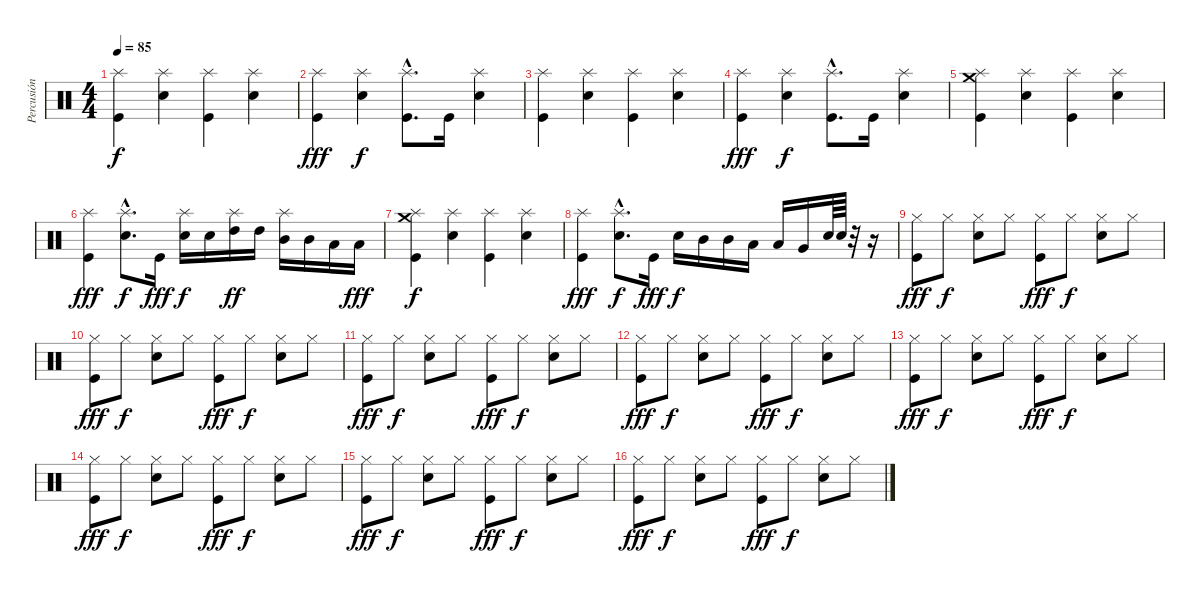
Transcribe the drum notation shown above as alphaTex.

\track ("Percusión" "Percusión") {instrument percussion}
\staff {score}
\articulation defaults
\ts (4 4)
\tempo 85
\clef neutral
\ks c
("Splash (hit)" "Kick (hit)").4{dy f} ("Splash (hit)" "Electric Snare (hit)").4 ("Splash (hit)" "Kick (hit)").4 ("Splash (hit)" "Electric Snare (hit)").4 |
("Splash (hit)" "Kick (hit)").4{dy fff} ("Splash (hit)" "Electric Snare (hit)").4{dy f} ("Splash (hit)"{hac} "Kick (hit)"{hac}).8{d} "Kick (hit)".16 ("Splash (hit)" "Electric Snare (hit)").4 |
("Splash (hit)" "Kick (hit)").4 ("Splash (hit)" "Electric Snare (hit)").4 ("Splash (hit)" "Kick (hit)").4 ("Splash (hit)" "Electric Snare (hit)").4 |
("Splash (hit)" "Kick (hit)").4{dy fff} ("Splash (hit)" "Electric Snare (hit)").4{dy f} ("Splash (hit)"{hac} "Kick (hit)"{hac}).8{d} "Kick (hit)".16 ("Splash (hit)" "Electric Snare (hit)").4 |
("Crash medium (hit)" "Kick (hit)" "Splash (hit)").4 ("Splash (hit)" "Electric Snare (hit)").4 ("Splash (hit)" "Kick (hit)").4 ("Splash (hit)" "Electric Snare (hit)").4 |
("Splash (hit)" "Kick (hit)").4{dy fff} ("Splash (hit)"{hac} "Electric Snare (hit)"{hac}).8{d dy f} "Kick (hit)".16{dy fff} ("Splash (hit)" "Snare (hit) 2").16{dy f} "Snare (hit) 2".16 ("Splash (hit)" "High Tom (hit)").16{dy ff} "High Tom (hit)".16 ("Splash (hit)" "Mid Tom (hit)").16 "Mid Tom (hit)".16 "Low Tom (hit)".16 "Low Tom (hit)".16{dy fff} |
("Splash (hit)" "Crash medium (hit)" "Kick (hit)").4{dy f} ("Splash (hit)" "Electric Snare (hit)").4 ("Splash (hit)" "Kick (hit)").4 ("Splash (hit)" "Electric Snare (hit)").4 |
("Splash (hit)" "Kick (hit)").4{dy fff} ("Splash (hit)"{hac} "Electric Snare (hit)"{hac}).8{d dy f} "Kick (hit)".16{dy fff} "Electric Snare (hit)".16{dy f} "Mid Tom (hit)".16 "Mid Tom (hit)".16 "Low Tom (hit)".16 "Low Tom (hit)".16 "Very Low Tom (hit)".16 "Snare (hit) 2".64 "Snare (hit) 2".64 r.32 r.16 |
("Hi-Hat (closed)" "Kick (hit)").8{dy fff} "Hi-Hat (closed)".8{dy f} ("Hi-Hat (closed)" "Electric Snare (hit)").8 "Hi-Hat (closed)".8 ("Hi-Hat (closed)" "Kick (hit)").8{dy fff} "Hi-Hat (closed)".8{dy f} ("Hi-Hat (closed)" "Electric Snare (hit)").8 "Hi-Hat (closed)".8 |
("Hi-Hat (closed)" "Kick (hit)").8{dy fff} "Hi-Hat (closed)".8{dy f} ("Hi-Hat (closed)" "Electric Snare (hit)").8 "Hi-Hat (closed)".8 ("Hi-Hat (closed)" "Kick (hit)").8{dy fff} "Hi-Hat (closed)".8{dy f} ("Hi-Hat (closed)" "Electric Snare (hit)").8 "Hi-Hat (closed)".8 |
("Hi-Hat (closed)" "Kick (hit)").8{dy fff} "Hi-Hat (closed)".8{dy f} ("Hi-Hat (closed)" "Electric Snare (hit)").8 "Hi-Hat (closed)".8 ("Hi-Hat (closed)" "Kick (hit)").8{dy fff} "Hi-Hat (closed)".8{dy f} ("Hi-Hat (closed)" "Electric Snare (hit)").8 "Hi-Hat (closed)".8 |
("Hi-Hat (closed)" "Kick (hit)").8{dy fff} "Hi-Hat (closed)".8{dy f} ("Hi-Hat (closed)" "Electric Snare (hit)").8 "Hi-Hat (closed)".8 ("Hi-Hat (closed)" "Kick (hit)").8{dy fff} "Hi-Hat (closed)".8{dy f} ("Hi-Hat (closed)" "Electric Snare (hit)").8 "Hi-Hat (closed)".8 |
("Hi-Hat (closed)" "Kick (hit)").8{dy fff} "Hi-Hat (closed)".8{dy f} ("Hi-Hat (closed)" "Electric Snare (hit)").8 "Hi-Hat (closed)".8 ("Hi-Hat (closed)" "Kick (hit)").8{dy fff} "Hi-Hat (closed)".8{dy f} ("Hi-Hat (closed)" "Electric Snare (hit)").8 "Hi-Hat (closed)".8 |
("Hi-Hat (closed)" "Kick (hit)").8{dy fff} "Hi-Hat (closed)".8{dy f} ("Hi-Hat (closed)" "Electric Snare (hit)").8 "Hi-Hat (closed)".8 ("Hi-Hat (closed)" "Kick (hit)").8{dy fff} "Hi-Hat (closed)".8{dy f} ("Hi-Hat (closed)" "Electric Snare (hit)").8 "Hi-Hat (closed)".8 |
("Hi-Hat (closed)" "Kick (hit)").8{dy fff} "Hi-Hat (closed)".8{dy f} ("Hi-Hat (closed)" "Electric Snare (hit)").8 "Hi-Hat (closed)".8 ("Hi-Hat (closed)" "Kick (hit)").8{dy fff} "Hi-Hat (closed)".8{dy f} ("Hi-Hat (closed)" "Electric Snare (hit)").8 "Hi-Hat (closed)".8 |
("Hi-Hat (closed)" "Kick (hit)").8{dy fff} "Hi-Hat (closed)".8{dy f} ("Hi-Hat (closed)" "Electric Snare (hit)").8 "Hi-Hat (closed)".8 ("Hi-Hat (closed)" "Kick (hit)").8{dy fff} "Hi-Hat (closed)".8{dy f} ("Hi-Hat (closed)" "Electric Snare (hit)").8 "Hi-Hat (closed)".8
